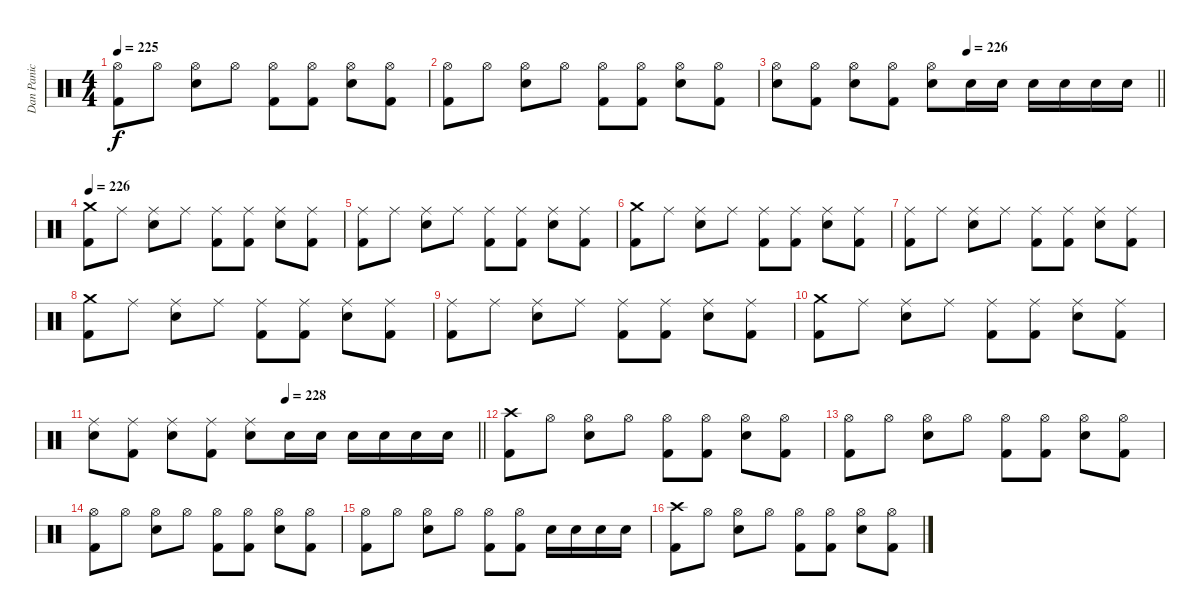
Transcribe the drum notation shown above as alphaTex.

\track ("Dan Panic" "Dan Panic") {instrument percussion}
\staff {score}
\articulation defaults
\ts (4 4)
\tempo 225
\clef neutral
\ks c
("Hi-Hat (open)" "Kick (hit) 2").8{dy f} "Hi-Hat (open)".8 ("Hi-Hat (open)" "Electric Snare (hit)").8 "Hi-Hat (open)".8 ("Hi-Hat (open)" "Kick (hit) 2").8 ("Hi-Hat (open)" "Kick (hit) 2").8 ("Hi-Hat (open)" "Electric Snare (hit)").8 ("Hi-Hat (open)" "Kick (hit) 2").8 |
("Hi-Hat (open)" "Kick (hit) 2").8 "Hi-Hat (open)".8 ("Hi-Hat (open)" "Electric Snare (hit)").8 "Hi-Hat (open)".8 ("Hi-Hat (open)" "Kick (hit) 2").8 ("Hi-Hat (open)" "Kick (hit) 2").8 ("Hi-Hat (open)" "Electric Snare (hit)").8 ("Hi-Hat (open)" "Kick (hit) 2").8 |
\tempo (226 0.5)
\barLineRight lightlight
("Hi-Hat (open)" "Electric Snare (hit)").8 ("Hi-Hat (open)" "Kick (hit) 2").8 ("Hi-Hat (open)" "Electric Snare (hit)").8 ("Hi-Hat (open)" "Kick (hit) 2").8 ("Hi-Hat (open)" "Electric Snare (hit)").8 "Electric Snare (hit)".16 "Electric Snare (hit)".16 "Electric Snare (hit)".16 "Electric Snare (hit)".16 "Electric Snare (hit)".16 "Electric Snare (hit)".16 |
\section ("" "")
\tempo 226
("Crash medium (hit)" "Kick (hit) 2").8 "Ride (middle)".8 ("Ride (middle)" "Electric Snare (hit)").8 "Ride (middle)".8 ("Ride (middle)" "Kick (hit) 2").8 ("Ride (middle)" "Kick (hit) 2").8 ("Ride (middle)" "Electric Snare (hit)").8 ("Ride (middle)" "Kick (hit) 2").8 |
("Ride (middle)" "Kick (hit) 2").8 "Ride (middle)".8 ("Ride (middle)" "Electric Snare (hit)").8 "Ride (middle)".8 ("Ride (middle)" "Kick (hit) 2").8 ("Ride (middle)" "Kick (hit) 2").8 ("Ride (middle)" "Electric Snare (hit)").8 ("Ride (middle)" "Kick (hit) 2").8 |
("Crash medium (hit)" "Kick (hit) 2").8 "Ride (middle)".8 ("Ride (middle)" "Electric Snare (hit)").8 "Ride (middle)".8 ("Ride (middle)" "Kick (hit) 2").8 ("Ride (middle)" "Kick (hit) 2").8 ("Ride (middle)" "Electric Snare (hit)").8 ("Ride (middle)" "Kick (hit) 2").8 |
("Ride (middle)" "Kick (hit) 2").8 "Ride (middle)".8 ("Ride (middle)" "Electric Snare (hit)").8 "Ride (middle)".8 ("Ride (middle)" "Kick (hit) 2").8 ("Ride (middle)" "Kick (hit) 2").8 ("Ride (middle)" "Electric Snare (hit)").8 ("Ride (middle)" "Kick (hit) 2").8 |
("Crash medium (hit)" "Kick (hit) 2").8 "Ride (middle)".8 ("Ride (middle)" "Electric Snare (hit)").8 "Ride (middle)".8 ("Ride (middle)" "Kick (hit) 2").8 ("Ride (middle)" "Kick (hit) 2").8 ("Ride (middle)" "Electric Snare (hit)").8 ("Ride (middle)" "Kick (hit) 2").8 |
("Ride (middle)" "Kick (hit) 2").8 "Ride (middle)".8 ("Ride (middle)" "Electric Snare (hit)").8 "Ride (middle)".8 ("Ride (middle)" "Kick (hit) 2").8 ("Ride (middle)" "Kick (hit) 2").8 ("Ride (middle)" "Electric Snare (hit)").8 ("Ride (middle)" "Kick (hit) 2").8 |
("Crash medium (hit)" "Kick (hit) 2").8 "Ride (middle)".8 ("Ride (middle)" "Electric Snare (hit)").8 "Ride (middle)".8 ("Ride (middle)" "Kick (hit) 2").8 ("Ride (middle)" "Kick (hit) 2").8 ("Ride (middle)" "Electric Snare (hit)").8 ("Ride (middle)" "Kick (hit) 2").8 |
\tempo (228 0.5)
\barLineRight lightlight
("Ride (middle)" "Electric Snare (hit)").8 ("Ride (middle)" "Kick (hit) 2").8 ("Ride (middle)" "Electric Snare (hit)").8 ("Ride (middle)" "Kick (hit) 2").8 ("Ride (middle)" "Electric Snare (hit)").8 "Electric Snare (hit)".16 "Electric Snare (hit)".16 "Electric Snare (hit)".16 "Electric Snare (hit)".16 "Electric Snare (hit)".16 "Electric Snare (hit)".16 |
\section ("" "")
("Crash high (hit)" "Kick (hit) 2").8 "Hi-Hat (open)".8 ("Hi-Hat (open)" "Electric Snare (hit)").8 "Hi-Hat (open)".8 ("Hi-Hat (open)" "Kick (hit) 2").8 ("Hi-Hat (open)" "Kick (hit) 2").8 ("Hi-Hat (open)" "Electric Snare (hit)").8 ("Hi-Hat (open)" "Kick (hit) 2").8 |
("Hi-Hat (open)" "Kick (hit) 2").8 "Hi-Hat (open)".8 ("Hi-Hat (open)" "Electric Snare (hit)").8 "Hi-Hat (open)".8 ("Hi-Hat (open)" "Kick (hit) 2").8 ("Hi-Hat (open)" "Kick (hit) 2").8 ("Hi-Hat (open)" "Electric Snare (hit)").8 ("Hi-Hat (open)" "Kick (hit) 2").8 |
("Hi-Hat (open)" "Kick (hit) 2").8 "Hi-Hat (open)".8 ("Hi-Hat (open)" "Electric Snare (hit)").8 "Hi-Hat (open)".8 ("Hi-Hat (open)" "Kick (hit) 2").8 ("Hi-Hat (open)" "Kick (hit) 2").8 ("Hi-Hat (open)" "Electric Snare (hit)").8 ("Hi-Hat (open)" "Kick (hit) 2").8 |
("Hi-Hat (open)" "Kick (hit) 2").8 "Hi-Hat (open)".8 ("Hi-Hat (open)" "Electric Snare (hit)").8 "Hi-Hat (open)".8 ("Hi-Hat (open)" "Kick (hit) 2").8 ("Hi-Hat (open)" "Kick (hit) 2").8 "Electric Snare (hit)".16 "Electric Snare (hit)".16 "Electric Snare (hit)".16 "Electric Snare (hit)".16 |
("Crash high (hit)" "Kick (hit) 2").8 "Hi-Hat (open)".8 ("Hi-Hat (open)" "Electric Snare (hit)").8 "Hi-Hat (open)".8 ("Hi-Hat (open)" "Kick (hit) 2").8 ("Hi-Hat (open)" "Kick (hit) 2").8 ("Hi-Hat (open)" "Electric Snare (hit)").8 ("Hi-Hat (open)" "Kick (hit) 2").8
